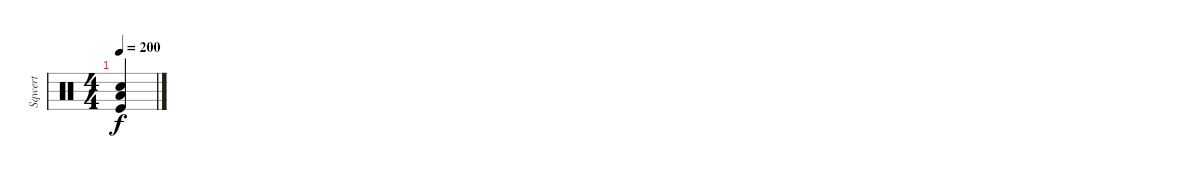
\track ("Sqwert" "Sqwert") {instrument percussion}
\staff {score}
\articulation defaults
\ts (4 4)
\tempo 200
\clef neutral
\ks c
("Low Tom (hit)" "Snare (hit) 2" "Kick (hit)").4{dy f}
